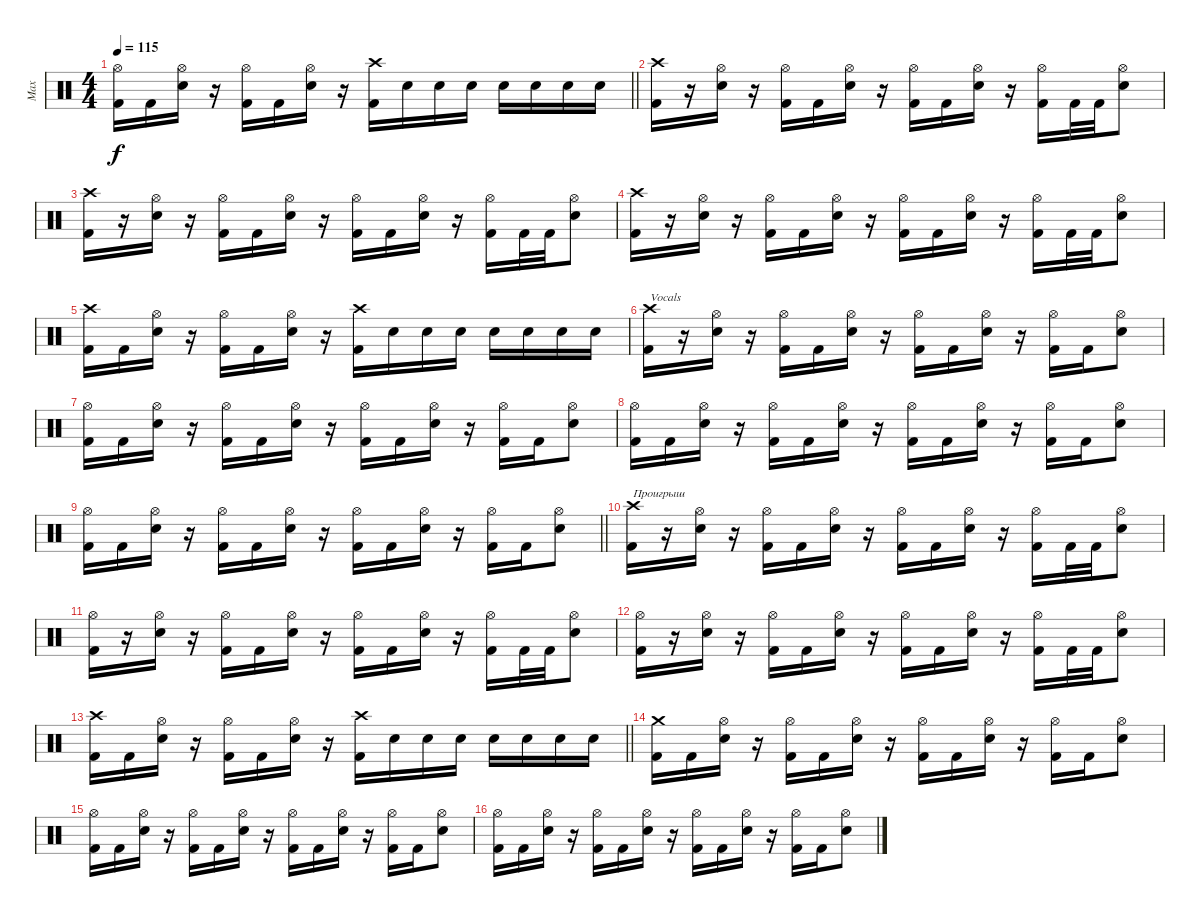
\track ("Max" "Max") {instrument percussion}
\staff {score}
\articulation defaults
\ts (4 4)
\tempo 115
\clef neutral
\barLineRight lightlight
\ks c
("Hi-Hat (open)" "Kick (hit) 2").16{dy f} "Kick (hit) 2".16 ("Hi-Hat (open)" "Electric Snare (hit)").16 r.16 ("Hi-Hat (open)" "Kick (hit) 2").16 "Kick (hit) 2".16 ("Hi-Hat (open)" "Electric Snare (hit)").16 r.16 ("Crash high (hit)" "Kick (hit) 2").16 "Electric Snare (hit)".16 "Electric Snare (hit)".16 "Electric Snare (hit)".16 "Electric Snare (hit)".16 "Electric Snare (hit)".16 "Electric Snare (hit)".16 "Electric Snare (hit)".16 |
("Crash high (hit)" "Kick (hit) 2").16 r.16 ("Hi-Hat (open)" "Electric Snare (hit)").16 r.16 ("Hi-Hat (open)" "Kick (hit) 2").16 "Kick (hit) 2".16 ("Hi-Hat (open)" "Electric Snare (hit)").16 r.16 ("Hi-Hat (open)" "Kick (hit) 2").16 "Kick (hit) 2".16 ("Hi-Hat (open)" "Electric Snare (hit)").16 r.16 ("Hi-Hat (open)" "Kick (hit) 2").16 "Kick (hit) 2".32 "Kick (hit) 2".32 ("Hi-Hat (open)" "Electric Snare (hit)").8 |
("Crash high (hit)" "Kick (hit) 2").16 r.16 ("Hi-Hat (open)" "Electric Snare (hit)").16 r.16 ("Hi-Hat (open)" "Kick (hit) 2").16 "Kick (hit) 2".16 ("Hi-Hat (open)" "Electric Snare (hit)").16 r.16 ("Hi-Hat (open)" "Kick (hit) 2").16 "Kick (hit) 2".16 ("Hi-Hat (open)" "Electric Snare (hit)").16 r.16 ("Hi-Hat (open)" "Kick (hit) 2").16 "Kick (hit) 2".32 "Kick (hit) 2".32 ("Hi-Hat (open)" "Electric Snare (hit)").8 |
("Crash high (hit)" "Kick (hit) 2").16 r.16 ("Hi-Hat (open)" "Electric Snare (hit)").16 r.16 ("Hi-Hat (open)" "Kick (hit) 2").16 "Kick (hit) 2".16 ("Hi-Hat (open)" "Electric Snare (hit)").16 r.16 ("Hi-Hat (open)" "Kick (hit) 2").16 "Kick (hit) 2".16 ("Hi-Hat (open)" "Electric Snare (hit)").16 r.16 ("Hi-Hat (open)" "Kick (hit) 2").16 "Kick (hit) 2".32 "Kick (hit) 2".32 ("Hi-Hat (open)" "Electric Snare (hit)").8 |
("Crash high (hit)" "Kick (hit) 2").16 "Kick (hit) 2".16 ("Hi-Hat (open)" "Electric Snare (hit)").16 r.16 ("Hi-Hat (open)" "Kick (hit) 2").16 "Kick (hit) 2".16 ("Hi-Hat (open)" "Electric Snare (hit)").16 r.16 ("Crash high (hit)" "Kick (hit) 2").16 "Electric Snare (hit)".16 "Electric Snare (hit)".16 "Electric Snare (hit)".16 "Electric Snare (hit)".16 "Electric Snare (hit)".16 "Electric Snare (hit)".16 "Electric Snare (hit)".16 |
("Crash high (hit)" "Kick (hit) 2").16{txt "Vocals"} r.16 ("Hi-Hat (open)" "Electric Snare (hit)").16 r.16 ("Hi-Hat (open)" "Kick (hit) 2").16 "Kick (hit) 2".16 ("Hi-Hat (open)" "Electric Snare (hit)").16 r.16 ("Hi-Hat (open)" "Kick (hit) 2").16 "Kick (hit) 2".16 ("Hi-Hat (open)" "Electric Snare (hit)").16 r.16 ("Hi-Hat (open)" "Kick (hit) 2").16 "Kick (hit) 2".16 ("Hi-Hat (open)" "Electric Snare (hit)").8 |
("Hi-Hat (open)" "Kick (hit) 2").16 "Kick (hit) 2".16 ("Hi-Hat (open)" "Electric Snare (hit)").16 r.16 ("Hi-Hat (open)" "Kick (hit) 2").16 "Kick (hit) 2".16 ("Hi-Hat (open)" "Electric Snare (hit)").16 r.16 ("Hi-Hat (open)" "Kick (hit) 2").16 "Kick (hit) 2".16 ("Hi-Hat (open)" "Electric Snare (hit)").16 r.16 ("Hi-Hat (open)" "Kick (hit) 2").16 "Kick (hit) 2".16 ("Hi-Hat (open)" "Electric Snare (hit)").8 |
("Hi-Hat (open)" "Kick (hit) 2").16 "Kick (hit) 2".16 ("Hi-Hat (open)" "Electric Snare (hit)").16 r.16 ("Hi-Hat (open)" "Kick (hit) 2").16 "Kick (hit) 2".16 ("Hi-Hat (open)" "Electric Snare (hit)").16 r.16 ("Hi-Hat (open)" "Kick (hit) 2").16 "Kick (hit) 2".16 ("Hi-Hat (open)" "Electric Snare (hit)").16 r.16 ("Hi-Hat (open)" "Kick (hit) 2").16 "Kick (hit) 2".16 ("Hi-Hat (open)" "Electric Snare (hit)").8 |
\barLineRight lightlight
("Hi-Hat (open)" "Kick (hit) 2").16 "Kick (hit) 2".16 ("Hi-Hat (open)" "Electric Snare (hit)").16 r.16 ("Hi-Hat (open)" "Kick (hit) 2").16 "Kick (hit) 2".16 ("Hi-Hat (open)" "Electric Snare (hit)").16 r.16 ("Hi-Hat (open)" "Kick (hit) 2").16 "Kick (hit) 2".16 ("Hi-Hat (open)" "Electric Snare (hit)").16 r.16 ("Hi-Hat (open)" "Kick (hit) 2").16 "Kick (hit) 2".16 ("Hi-Hat (open)" "Electric Snare (hit)").8 |
("Crash high (hit)" "Kick (hit) 2").16{txt "Проигрыш"} r.16 ("Hi-Hat (open)" "Electric Snare (hit)").16 r.16 ("Hi-Hat (open)" "Kick (hit) 2").16 "Kick (hit) 2".16 ("Hi-Hat (open)" "Electric Snare (hit)").16 r.16 ("Hi-Hat (open)" "Kick (hit) 2").16 "Kick (hit) 2".16 ("Hi-Hat (open)" "Electric Snare (hit)").16 r.16 ("Hi-Hat (open)" "Kick (hit) 2").16 "Kick (hit) 2".32 "Kick (hit) 2".32 ("Hi-Hat (open)" "Electric Snare (hit)").8 |
("Hi-Hat (open)" "Kick (hit) 2").16 r.16 ("Hi-Hat (open)" "Electric Snare (hit)").16 r.16 ("Hi-Hat (open)" "Kick (hit) 2").16 "Kick (hit) 2".16 ("Hi-Hat (open)" "Electric Snare (hit)").16 r.16 ("Hi-Hat (open)" "Kick (hit) 2").16 "Kick (hit) 2".16 ("Hi-Hat (open)" "Electric Snare (hit)").16 r.16 ("Hi-Hat (open)" "Kick (hit) 2").16 "Kick (hit) 2".32 "Kick (hit) 2".32 ("Hi-Hat (open)" "Electric Snare (hit)").8 |
("Hi-Hat (open)" "Kick (hit) 2").16 r.16 ("Hi-Hat (open)" "Electric Snare (hit)").16 r.16 ("Hi-Hat (open)" "Kick (hit) 2").16 "Kick (hit) 2".16 ("Hi-Hat (open)" "Electric Snare (hit)").16 r.16 ("Hi-Hat (open)" "Kick (hit) 2").16 "Kick (hit) 2".16 ("Hi-Hat (open)" "Electric Snare (hit)").16 r.16 ("Hi-Hat (open)" "Kick (hit) 2").16 "Kick (hit) 2".32 "Kick (hit) 2".32 ("Hi-Hat (open)" "Electric Snare (hit)").8 |
\barLineRight lightlight
("Crash high (hit)" "Kick (hit) 2").16 "Kick (hit) 2".16 ("Hi-Hat (open)" "Electric Snare (hit)").16 r.16 ("Hi-Hat (open)" "Kick (hit) 2").16 "Kick (hit) 2".16 ("Hi-Hat (open)" "Electric Snare (hit)").16 r.16 ("Crash high (hit)" "Kick (hit) 2").16 "Electric Snare (hit)".16 "Electric Snare (hit)".16 "Electric Snare (hit)".16 "Electric Snare (hit)".16 "Electric Snare (hit)".16 "Electric Snare (hit)".16 "Electric Snare (hit)".16 |
("Crash medium (hit)" "Kick (hit) 2").16 "Kick (hit) 2".16 ("Hi-Hat (open)" "Electric Snare (hit)").16 r.16 ("Hi-Hat (open)" "Kick (hit) 2").16 "Kick (hit) 2".16 ("Hi-Hat (open)" "Electric Snare (hit)").16 r.16 ("Hi-Hat (open)" "Kick (hit) 2").16 "Kick (hit) 2".16 ("Hi-Hat (open)" "Electric Snare (hit)").16 r.16 ("Hi-Hat (open)" "Kick (hit) 2").16 "Kick (hit) 2".16 ("Hi-Hat (open)" "Electric Snare (hit)").8 |
("Hi-Hat (open)" "Kick (hit) 2").16 "Kick (hit) 2".16 ("Hi-Hat (open)" "Electric Snare (hit)").16 r.16 ("Hi-Hat (open)" "Kick (hit) 2").16 "Kick (hit) 2".16 ("Hi-Hat (open)" "Electric Snare (hit)").16 r.16 ("Hi-Hat (open)" "Kick (hit) 2").16 "Kick (hit) 2".16 ("Hi-Hat (open)" "Electric Snare (hit)").16 r.16 ("Hi-Hat (open)" "Kick (hit) 2").16 "Kick (hit) 2".16 ("Hi-Hat (open)" "Electric Snare (hit)").8 |
("Hi-Hat (open)" "Kick (hit) 2").16 "Kick (hit) 2".16 ("Hi-Hat (open)" "Electric Snare (hit)").16 r.16 ("Hi-Hat (open)" "Kick (hit) 2").16 "Kick (hit) 2".16 ("Hi-Hat (open)" "Electric Snare (hit)").16 r.16 ("Hi-Hat (open)" "Kick (hit) 2").16 "Kick (hit) 2".16 ("Hi-Hat (open)" "Electric Snare (hit)").16 r.16 ("Hi-Hat (open)" "Kick (hit) 2").16 "Kick (hit) 2".16 ("Hi-Hat (open)" "Electric Snare (hit)").8
